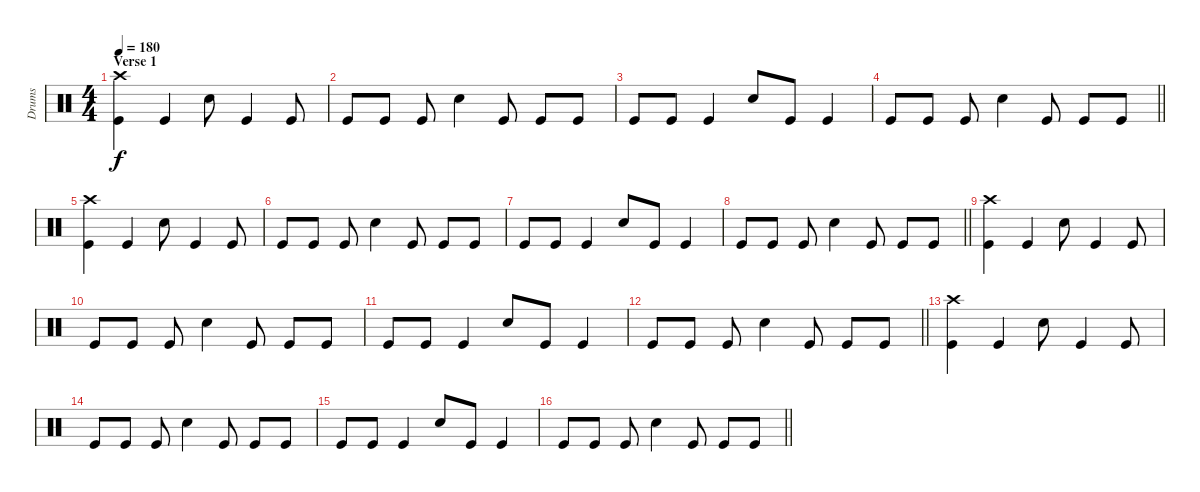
\track ("Drums" "Drums") {instrument percussion}
\staff {score}
\articulation defaults
\ts (4 4)
\section ("" "Verse 1")
\tempo 180
\clef neutral
\ks c
("Crash high (hit)" "Kick (hit)").4{dy f} "Kick (hit)".4 "Snare (hit) 2".8 "Kick (hit)".4 "Kick (hit)".8 |
"Kick (hit)".8 "Kick (hit)".8 "Kick (hit)".8 "Snare (hit) 2".4 "Kick (hit)".8 "Kick (hit)".8 "Kick (hit)".8 |
"Kick (hit)".8 "Kick (hit)".8 "Kick (hit)".4 "Snare (hit) 2".8 "Kick (hit)".8 "Kick (hit)".4 |
\barLineRight lightlight "Kick (hit)".8 "Kick (hit)".8 "Kick (hit)".8 "Snare (hit) 2".4 "Kick (hit)".8 "Kick (hit)".8 "Kick (hit)".8
|
("Crash high (hit)" "Kick (hit)").4 "Kick (hit)".4 "Snare (hit) 2".8 "Kick (hit)".4 "Kick (hit)".8 |
"Kick (hit)".8 "Kick (hit)".8 "Kick (hit)".8 "Snare (hit) 2".4 "Kick (hit)".8 "Kick (hit)".8 "Kick (hit)".8 |
"Kick (hit)".8 "Kick (hit)".8 "Kick (hit)".4 "Snare (hit) 2".8 "Kick (hit)".8 "Kick (hit)".4 |
\barLineRight lightlight "Kick (hit)".8 "Kick (hit)".8 "Kick (hit)".8 "Snare (hit) 2".4 "Kick (hit)".8 "Kick (hit)".8 "Kick (hit)".8
|
("Crash high (hit)" "Kick (hit)").4 "Kick (hit)".4 "Snare (hit) 2".8 "Kick (hit)".4 "Kick (hit)".8 |
"Kick (hit)".8 "Kick (hit)".8 "Kick (hit)".8 "Snare (hit) 2".4 "Kick (hit)".8 "Kick (hit)".8 "Kick (hit)".8 |
"Kick (hit)".8 "Kick (hit)".8 "Kick (hit)".4 "Snare (hit) 2".8 "Kick (hit)".8 "Kick (hit)".4 |
\barLineRight lightlight "Kick (hit)".8 "Kick (hit)".8 "Kick (hit)".8 "Snare (hit) 2".4 "Kick (hit)".8 "Kick (hit)".8 "Kick (hit)".8
|
("Crash high (hit)" "Kick (hit)").4 "Kick (hit)".4 "Snare (hit) 2".8 "Kick (hit)".4 "Kick (hit)".8 |
"Kick (hit)".8 "Kick (hit)".8 "Kick (hit)".8 "Snare (hit) 2".4 "Kick (hit)".8 "Kick (hit)".8 "Kick (hit)".8 |
"Kick (hit)".8 "Kick (hit)".8 "Kick (hit)".4 "Snare (hit) 2".8 "Kick (hit)".8 "Kick (hit)".4 |
\barLineRight lightlight "Kick (hit)".8 "Kick (hit)".8 "Kick (hit)".8 "Snare (hit) 2".4 "Kick (hit)".8 "Kick (hit)".8 "Kick (hit)".8
